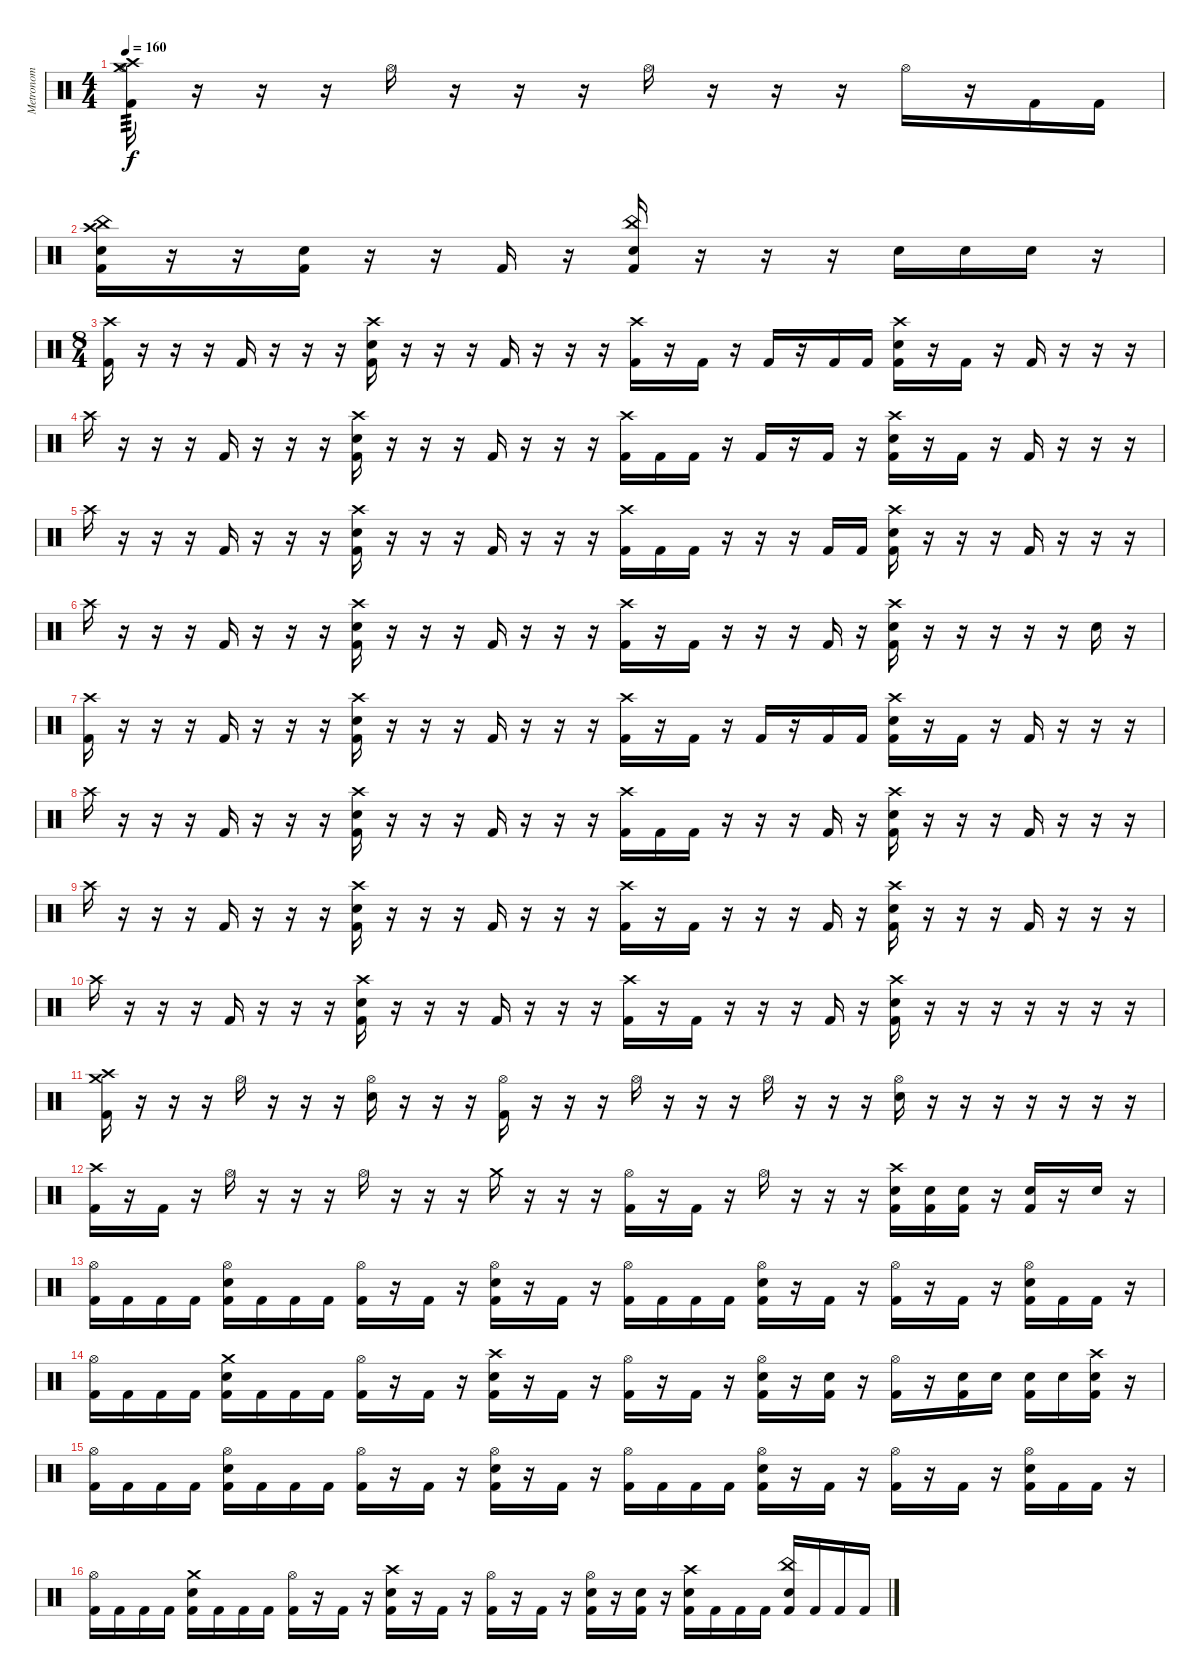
\track ("Metronom" "Metronom") {instrument percussion}
\staff
\articulation defaults
\ts (4 4)
\tempo 160
\clef neutral
\ks c
("Hi-Hat (open)" "Crash medium (hit)" "Crash high (hit)" "Kick (hit) 2").16{tp 3 dy f} r.16 r.16 r.16 "Hi-Hat (open)".16 r.16 r.16 r.16 "Hi-Hat (open)".16 r.16 r.16 r.16 "Hi-Hat (open)".16 r.16 "Kick (hit) 2".16 "Kick (hit) 2".16 |
("Crash high (hit)" "China (hit)" "Electric Snare (hit)" "Kick (hit) 2").16 r.16 r.16 ("Electric Snare (hit)" "Kick (hit) 2").16 r.16 r.16 "Kick (hit) 2".16 r.16 ("China (hit)" "Electric Snare (hit)" "Kick (hit) 2").16 r.16 r.16 r.16 "Electric Snare (hit)".16 "Electric Snare (hit)".16 "Electric Snare (hit)".16 r.16 |
\ts (8 4)
("Crash high (hit)" "Kick (hit) 2").16 r.16 r.16 r.16 "Kick (hit) 2".16 r.16 r.16 r.16 ("Crash high (hit)" "Electric Snare (hit)" "Kick (hit) 2").16 r.16 r.16 r.16 "Kick (hit) 2".16 r.16 r.16 r.16 ("Crash high (hit)" "Kick (hit) 2").16 r.16 "Kick (hit) 2".16 r.16 "Kick (hit) 2".16 r.16 "Kick (hit) 2".16 "Kick (hit) 2".16 ("Crash high (hit)" "Electric Snare (hit)" "Kick (hit) 2").16 r.16 "Kick (hit) 2".16 r.16 "Kick (hit) 2".16 r.16 r.16 r.16 |
"Crash high (hit)".16 r.16 r.16 r.16 "Kick (hit) 2".16 r.16 r.16 r.16 ("Crash high (hit)" "Electric Snare (hit)" "Kick (hit) 2").16 r.16 r.16 r.16 "Kick (hit) 2".16 r.16 r.16 r.16 ("Crash high (hit)" "Kick (hit) 2").16 "Kick (hit) 2".16 "Kick (hit) 2".16 r.16 "Kick (hit) 2".16 r.16 "Kick (hit) 2".16 r.16 ("Crash high (hit)" "Electric Snare (hit)" "Kick (hit) 2").16 r.16 "Kick (hit) 2".16 r.16 "Kick (hit) 2".16 r.16 r.16 r.16 |
"Crash high (hit)".16 r.16 r.16 r.16 "Kick (hit) 2".16 r.16 r.16 r.16 ("Crash high (hit)" "Electric Snare (hit)" "Kick (hit) 2").16 r.16 r.16 r.16 "Kick (hit) 2".16 r.16 r.16 r.16 ("Crash high (hit)" "Kick (hit) 2").16 "Kick (hit) 2".16 "Kick (hit) 2".16 r.16 r.16 r.16 "Kick (hit) 2".16 "Kick (hit) 2".16 ("Crash high (hit)" "Electric Snare (hit)" "Kick (hit) 2").16 r.16 r.16 r.16 "Kick (hit) 2".16 r.16 r.16 r.16 |
"Crash high (hit)".16 r.16 r.16 r.16 "Kick (hit) 2".16 r.16 r.16 r.16 ("Crash high (hit)" "Electric Snare (hit)" "Kick (hit) 2").16 r.16 r.16 r.16 "Kick (hit) 2".16 r.16 r.16 r.16 ("Crash high (hit)" "Kick (hit) 2").16 r.16 "Kick (hit) 2".16 r.16 r.16 r.16 "Kick (hit) 2".16 r.16 ("Crash high (hit)" "Electric Snare (hit)" "Kick (hit) 2").16 r.16 r.16 r.16 r.16 r.16 "Electric Snare (hit)".16 r.16 |
("Crash high (hit)" "Kick (hit) 2").16 r.16 r.16 r.16 "Kick (hit) 2".16 r.16 r.16 r.16 ("Crash high (hit)" "Electric Snare (hit)" "Kick (hit) 2").16 r.16 r.16 r.16 "Kick (hit) 2".16 r.16 r.16 r.16 ("Crash high (hit)" "Kick (hit) 2").16 r.16 "Kick (hit) 2".16 r.16 "Kick (hit) 2".16 r.16 "Kick (hit) 2".16 "Kick (hit) 2".16 ("Crash high (hit)" "Electric Snare (hit)" "Kick (hit) 2").16 r.16 "Kick (hit) 2".16 r.16 "Kick (hit) 2".16 r.16 r.16 r.16 |
"Crash high (hit)".16 r.16 r.16 r.16 "Kick (hit) 2".16 r.16 r.16 r.16 ("Crash high (hit)" "Electric Snare (hit)" "Kick (hit) 2").16 r.16 r.16 r.16 "Kick (hit) 2".16 r.16 r.16 r.16 ("Crash high (hit)" "Kick (hit) 2").16 "Kick (hit) 2".16 "Kick (hit) 2".16 r.16 r.16 r.16 "Kick (hit) 2".16 r.16 ("Crash high (hit)" "Electric Snare (hit)" "Kick (hit) 2").16 r.16 r.16 r.16 "Kick (hit) 2".16 r.16 r.16 r.16 |
"Crash high (hit)".16 r.16 r.16 r.16 "Kick (hit) 2".16 r.16 r.16 r.16 ("Crash high (hit)" "Electric Snare (hit)" "Kick (hit) 2").16 r.16 r.16 r.16 "Kick (hit) 2".16 r.16 r.16 r.16 ("Crash high (hit)" "Kick (hit) 2").16 r.16 "Kick (hit) 2".16 r.16 r.16 r.16 "Kick (hit) 2".16 r.16 ("Crash high (hit)" "Electric Snare (hit)" "Kick (hit) 2").16 r.16 r.16 r.16 "Kick (hit) 2".16 r.16 r.16 r.16 |
"Crash high (hit)".16 r.16 r.16 r.16 "Kick (hit) 2".16 r.16 r.16 r.16 ("Crash high (hit)" "Electric Snare (hit)" "Kick (hit) 2").16 r.16 r.16 r.16 "Kick (hit) 2".16 r.16 r.16 r.16 ("Crash high (hit)" "Kick (hit) 2").16 r.16 "Kick (hit) 2".16 r.16 r.16 r.16 "Kick (hit) 2".16 r.16 ("Crash high (hit)" "Electric Snare (hit)" "Kick (hit) 2").16 r.16 r.16 r.16 r.16 r.16 r.16 r.16 |
("Crash high (hit)" "Crash medium (hit)" "Kick (hit) 2").16 r.16 r.16 r.16 "Hi-Hat (open)".16 r.16 r.16 r.16 ("Hi-Hat (open)" "Electric Snare (hit)").16 r.16 r.16 r.16 ("Hi-Hat (open)" "Kick (hit) 2").16 r.16 r.16 r.16 "Hi-Hat (open)".16 r.16 r.16 r.16 "Hi-Hat (open)".16 r.16 r.16 r.16 ("Hi-Hat (open)" "Electric Snare (hit)").16 r.16 r.16 r.16 r.16 r.16 r.16 r.16 |
("Crash high (hit)" "Kick (hit) 2").16 r.16 "Kick (hit) 2".16 r.16 "Hi-Hat (open)".16 r.16 r.16 r.16 "Hi-Hat (open)".16 r.16 r.16 r.16 "Crash medium (hit)".16 r.16 r.16 r.16 ("Hi-Hat (open)" "Kick (hit) 2").16 r.16 "Kick (hit) 2".16 r.16 "Hi-Hat (open)".16 r.16 r.16 r.16 ("Crash high (hit)" "Electric Snare (hit)" "Kick (hit) 2").16 ("Electric Snare (hit)" "Kick (hit) 2").16 ("Electric Snare (hit)" "Kick (hit) 2").16 r.16 ("Electric Snare (hit)" "Kick (hit) 2").16 r.16 "Electric Snare (hit)".16 r.16 |
("Hi-Hat (open)" "Kick (hit) 2").16 "Kick (hit) 2".16 "Kick (hit) 2".16 "Kick (hit) 2".16 ("Hi-Hat (open)" "Electric Snare (hit)" "Kick (hit) 2").16 "Kick (hit) 2".16 "Kick (hit) 2".16 "Kick (hit) 2".16 ("Hi-Hat (open)" "Kick (hit) 2").16 r.16 "Kick (hit) 2".16 r.16 ("Hi-Hat (open)" "Electric Snare (hit)" "Kick (hit) 2").16 r.16 "Kick (hit) 2".16 r.16 ("Hi-Hat (open)" "Kick (hit) 2").16 "Kick (hit) 2".16 "Kick (hit) 2".16 "Kick (hit) 2".16 ("Hi-Hat (open)" "Electric Snare (hit)" "Kick (hit) 2").16 r.16 "Kick (hit) 2".16 r.16 ("Hi-Hat (open)" "Kick (hit) 2").16 r.16 "Kick (hit) 2".16 r.16 ("Hi-Hat (open)" "Electric Snare (hit)" "Kick (hit) 2").16 "Kick (hit) 2".16 "Kick (hit) 2".16 r.16 |
("Hi-Hat (open)" "Kick (hit) 2").16 "Kick (hit) 2".16 "Kick (hit) 2".16 "Kick (hit) 2".16 ("Crash medium (hit)" "Electric Snare (hit)" "Kick (hit) 2").16 "Kick (hit) 2".16 "Kick (hit) 2".16 "Kick (hit) 2".16 ("Hi-Hat (open)" "Kick (hit) 2").16 r.16 "Kick (hit) 2".16 r.16 ("Crash high (hit)" "Electric Snare (hit)" "Kick (hit) 2").16 r.16 "Kick (hit) 2".16 r.16 ("Hi-Hat (open)" "Kick (hit) 2").16 r.16 "Kick (hit) 2".16 r.16 ("Hi-Hat (open)" "Electric Snare (hit)" "Kick (hit) 2").16 r.16 ("Electric Snare (hit)" "Kick (hit) 2").16 r.16 ("Hi-Hat (open)" "Kick (hit) 2").16 r.16 ("Electric Snare (hit)" "Kick (hit) 2").16 "Electric Snare (hit)".16 ("Electric Snare (hit)" "Kick (hit) 2").16 "Electric Snare (hit)".16 ("Crash high (hit)" "Electric Snare (hit)" "Kick (hit) 2").16 r.16 |
("Hi-Hat (open)" "Kick (hit) 2").16 "Kick (hit) 2".16 "Kick (hit) 2".16 "Kick (hit) 2".16 ("Hi-Hat (open)" "Electric Snare (hit)" "Kick (hit) 2").16 "Kick (hit) 2".16 "Kick (hit) 2".16 "Kick (hit) 2".16 ("Hi-Hat (open)" "Kick (hit) 2").16 r.16 "Kick (hit) 2".16 r.16 ("Hi-Hat (open)" "Electric Snare (hit)" "Kick (hit) 2").16 r.16 "Kick (hit) 2".16 r.16 ("Hi-Hat (open)" "Kick (hit) 2").16 "Kick (hit) 2".16 "Kick (hit) 2".16 "Kick (hit) 2".16 ("Hi-Hat (open)" "Electric Snare (hit)" "Kick (hit) 2").16 r.16 "Kick (hit) 2".16 r.16 ("Hi-Hat (open)" "Kick (hit) 2").16 r.16 "Kick (hit) 2".16 r.16 ("Hi-Hat (open)" "Electric Snare (hit)" "Kick (hit) 2").16 "Kick (hit) 2".16 "Kick (hit) 2".16 r.16 |
("Hi-Hat (open)" "Kick (hit) 2").16 "Kick (hit) 2".16 "Kick (hit) 2".16 "Kick (hit) 2".16 ("Crash medium (hit)" "Electric Snare (hit)" "Kick (hit) 2").16 "Kick (hit) 2".16 "Kick (hit) 2".16 "Kick (hit) 2".16 ("Hi-Hat (open)" "Kick (hit) 2").16 r.16 "Kick (hit) 2".16 r.16 ("Crash high (hit)" "Electric Snare (hit)" "Kick (hit) 2").16 r.16 "Kick (hit) 2".16 r.16 ("Hi-Hat (open)" "Kick (hit) 2").16 r.16 "Kick (hit) 2".16 r.16 ("Hi-Hat (open)" "Electric Snare (hit)" "Kick (hit) 2").16 r.16 ("Electric Snare (hit)" "Kick (hit) 2").16 r.16 ("Crash high (hit)" "Electric Snare (hit)" "Kick (hit) 2").16 "Kick (hit) 2".16 "Kick (hit) 2".16 "Kick (hit) 2".16 ("China (hit)" "Electric Snare (hit)" "Kick (hit) 2").16 "Kick (hit) 2".16 "Kick (hit) 2".16 "Kick (hit) 2".16
